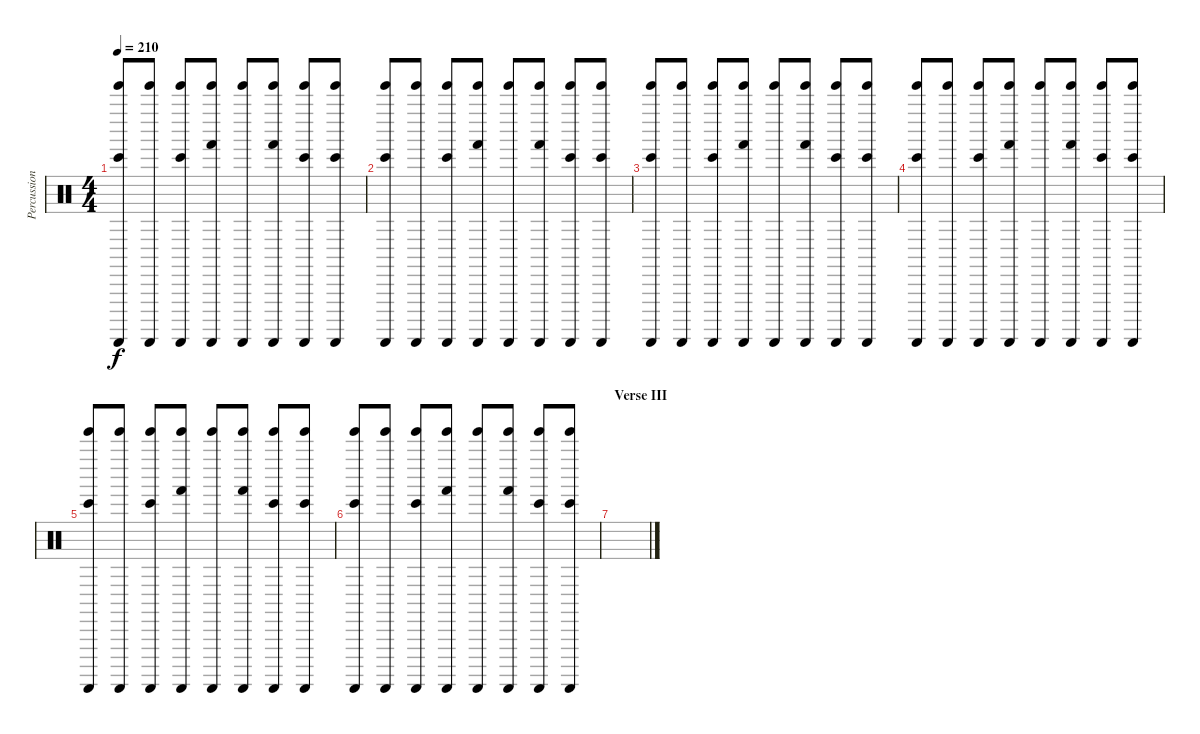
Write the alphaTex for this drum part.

\track ("Percussion" "Percussion") {instrument percussion}
\staff {score}
\articulation defaults
\ts (4 4)
\tempo 210
\clef neutral
\ks c
("Guiro (scrap-return)" "Tinkle Bell (hit)" "Bongo High (hit)").8{dy f} ("Guiro (scrap-return)" "Tinkle Bell (hit)").8 ("Guiro (scrap-return)" "Tinkle Bell (hit)" "Bongo High (hit)").8 ("Guiro (scrap-return)" "Tinkle Bell (hit)" "Hand (hit)").8 ("Guiro (scrap-return)" "Tinkle Bell (hit)").8 ("Guiro (scrap-return)" "Tinkle Bell (hit)" "Hand (hit)").8 ("Guiro (scrap-return)" "Tinkle Bell (hit)" "Bongo High (hit)").8 ("Guiro (scrap-return)" "Tinkle Bell (hit)" "Bongo High (hit)").8 |
("Guiro (scrap-return)" "Tinkle Bell (hit)" "Bongo High (hit)").8 ("Guiro (scrap-return)" "Tinkle Bell (hit)").8 ("Guiro (scrap-return)" "Tinkle Bell (hit)" "Bongo High (hit)").8 ("Guiro (scrap-return)" "Tinkle Bell (hit)" "Hand (hit)").8 ("Guiro (scrap-return)" "Tinkle Bell (hit)").8 ("Guiro (scrap-return)" "Tinkle Bell (hit)" "Hand (hit)").8 ("Guiro (scrap-return)" "Tinkle Bell (hit)" "Bongo High (hit)").8 ("Guiro (scrap-return)" "Tinkle Bell (hit)" "Bongo High (hit)").8 |
("Guiro (scrap-return)" "Tinkle Bell (hit)" "Bongo High (hit)").8 ("Guiro (scrap-return)" "Tinkle Bell (hit)").8 ("Guiro (scrap-return)" "Tinkle Bell (hit)" "Bongo High (hit)").8 ("Guiro (scrap-return)" "Tinkle Bell (hit)" "Hand (hit)").8 ("Guiro (scrap-return)" "Tinkle Bell (hit)").8 ("Guiro (scrap-return)" "Tinkle Bell (hit)" "Hand (hit)").8 ("Guiro (scrap-return)" "Tinkle Bell (hit)" "Bongo High (hit)").8 ("Guiro (scrap-return)" "Tinkle Bell (hit)" "Bongo High (hit)").8 |
("Guiro (scrap-return)" "Tinkle Bell (hit)" "Bongo High (hit)").8 ("Guiro (scrap-return)" "Tinkle Bell (hit)").8 ("Guiro (scrap-return)" "Tinkle Bell (hit)" "Bongo High (hit)").8 ("Guiro (scrap-return)" "Tinkle Bell (hit)" "Hand (hit)").8 ("Guiro (scrap-return)" "Tinkle Bell (hit)").8 ("Guiro (scrap-return)" "Tinkle Bell (hit)" "Hand (hit)").8 ("Guiro (scrap-return)" "Tinkle Bell (hit)" "Bongo High (hit)").8 ("Guiro (scrap-return)" "Tinkle Bell (hit)" "Bongo High (hit)").8 |
("Guiro (scrap-return)" "Tinkle Bell (hit)" "Bongo High (hit)").8 ("Guiro (scrap-return)" "Tinkle Bell (hit)").8 ("Guiro (scrap-return)" "Tinkle Bell (hit)" "Bongo High (hit)").8 ("Guiro (scrap-return)" "Tinkle Bell (hit)" "Hand (hit)").8 ("Guiro (scrap-return)" "Tinkle Bell (hit)").8 ("Guiro (scrap-return)" "Tinkle Bell (hit)" "Hand (hit)").8 ("Guiro (scrap-return)" "Tinkle Bell (hit)" "Bongo High (hit)").8 ("Guiro (scrap-return)" "Tinkle Bell (hit)" "Bongo High (hit)").8 |
("Guiro (scrap-return)" "Tinkle Bell (hit)" "Bongo High (hit)").8 ("Guiro (scrap-return)" "Tinkle Bell (hit)").8 ("Guiro (scrap-return)" "Tinkle Bell (hit)" "Bongo High (hit)").8 ("Guiro (scrap-return)" "Tinkle Bell (hit)" "Hand (hit)").8 ("Guiro (scrap-return)" "Tinkle Bell (hit)").8 ("Guiro (scrap-return)" "Tinkle Bell (hit)" "Hand (hit)").8 ("Guiro (scrap-return)" "Tinkle Bell (hit)" "Bongo High (hit)").8 ("Guiro (scrap-return)" "Tinkle Bell (hit)" "Bongo High (hit)").8 |
\section ("" "Verse III")
